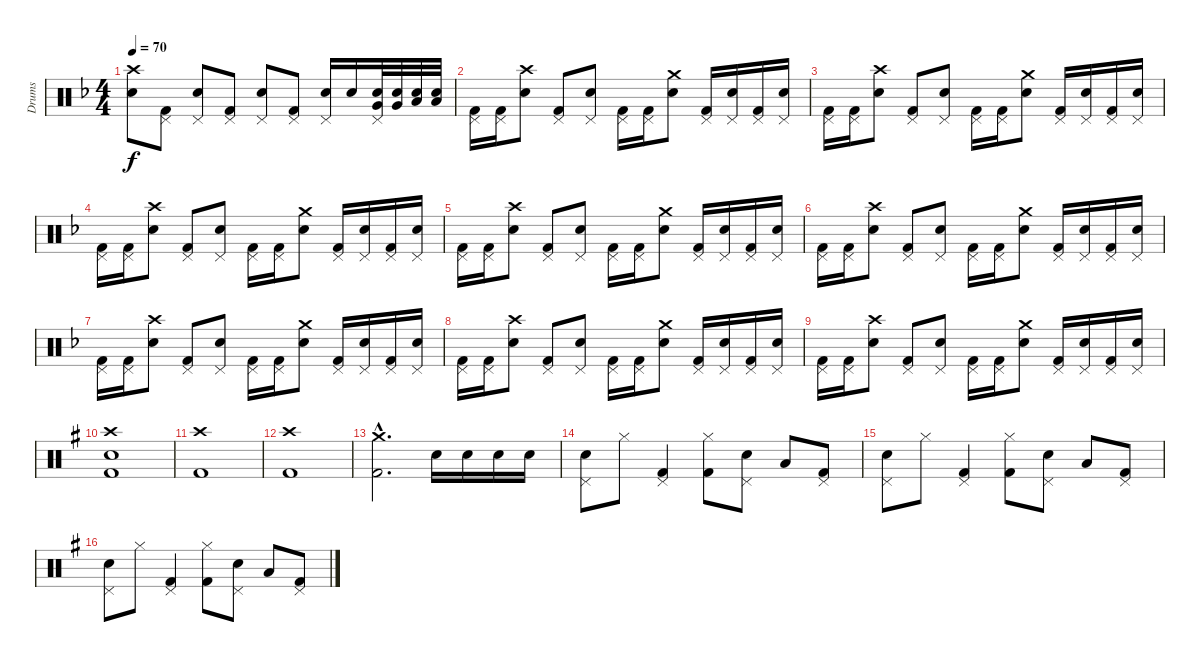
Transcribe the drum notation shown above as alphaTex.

\track ("Drums" "Drums") {instrument percussion}
\staff {score}
\articulation defaults
\ts (4 4)
\tempo 70
\clef neutral
\ks dminor
("Crash high (hit)" "Snare (hit) 2").8{dy f} ("Pedal Hi-Hat (hit)" "Kick (hit) 2").8 ("Pedal Hi-Hat (hit)" "Snare (hit) 2").8 ("Pedal Hi-Hat (hit)" "Kick (hit) 2").8 ("Pedal Hi-Hat (hit)" "Snare (hit) 2").8 ("Pedal Hi-Hat (hit)" "Kick (hit) 2").8 ("Pedal Hi-Hat (hit)" "Snare (hit) 2").16 "Snare (hit) 2".16 ("Pedal Hi-Hat (hit)" "Snare (hit) 2" "Very Low Tom (hit)").32 ("Snare (hit) 2" "Very Low Tom (hit)").32 ("Snare (hit) 2" "Low Floor Tom (hit)").32 ("Snare (hit) 2" "Low Floor Tom (hit)").32 |
("Pedal Hi-Hat (hit)" "Kick (hit) 2").16 ("Pedal Hi-Hat (hit)" "Kick (hit) 2").16 ("Crash high (hit)" "Snare (hit) 2").8 ("Pedal Hi-Hat (hit)" "Kick (hit) 2").8 ("Pedal Hi-Hat (hit)" "Snare (hit) 2").8 ("Pedal Hi-Hat (hit)" "Kick (hit) 2").16 ("Pedal Hi-Hat (hit)" "Kick (hit) 2").16 ("Crash medium (hit)" "Snare (hit) 2").8 ("Pedal Hi-Hat (hit)" "Kick (hit) 2").16 ("Pedal Hi-Hat (hit)" "Snare (hit) 2").16 ("Pedal Hi-Hat (hit)" "Kick (hit) 2").16 ("Pedal Hi-Hat (hit)" "Snare (hit) 2").16 |
("Pedal Hi-Hat (hit)" "Kick (hit) 2").16 ("Pedal Hi-Hat (hit)" "Kick (hit) 2").16 ("Crash high (hit)" "Snare (hit) 2").8 ("Pedal Hi-Hat (hit)" "Kick (hit) 2").8 ("Pedal Hi-Hat (hit)" "Snare (hit) 2").8 ("Pedal Hi-Hat (hit)" "Kick (hit) 2").16 ("Pedal Hi-Hat (hit)" "Kick (hit) 2").16 ("Crash medium (hit)" "Snare (hit) 2").8 ("Pedal Hi-Hat (hit)" "Kick (hit) 2").16 ("Pedal Hi-Hat (hit)" "Snare (hit) 2").16 ("Pedal Hi-Hat (hit)" "Kick (hit) 2").16 ("Pedal Hi-Hat (hit)" "Snare (hit) 2").16 |
("Pedal Hi-Hat (hit)" "Kick (hit) 2").16 ("Pedal Hi-Hat (hit)" "Kick (hit) 2").16 ("Crash high (hit)" "Snare (hit) 2").8 ("Pedal Hi-Hat (hit)" "Kick (hit) 2").8 ("Pedal Hi-Hat (hit)" "Snare (hit) 2").8 ("Pedal Hi-Hat (hit)" "Kick (hit) 2").16 ("Pedal Hi-Hat (hit)" "Kick (hit) 2").16 ("Crash medium (hit)" "Snare (hit) 2").8 ("Pedal Hi-Hat (hit)" "Kick (hit) 2").16 ("Pedal Hi-Hat (hit)" "Snare (hit) 2").16 ("Pedal Hi-Hat (hit)" "Kick (hit) 2").16 ("Pedal Hi-Hat (hit)" "Snare (hit) 2").16 |
("Pedal Hi-Hat (hit)" "Kick (hit) 2").16 ("Pedal Hi-Hat (hit)" "Kick (hit) 2").16 ("Crash high (hit)" "Snare (hit) 2").8 ("Pedal Hi-Hat (hit)" "Kick (hit) 2").8 ("Pedal Hi-Hat (hit)" "Snare (hit) 2").8 ("Pedal Hi-Hat (hit)" "Kick (hit) 2").16 ("Pedal Hi-Hat (hit)" "Kick (hit) 2").16 ("Crash medium (hit)" "Snare (hit) 2").8 ("Pedal Hi-Hat (hit)" "Kick (hit) 2").16 ("Pedal Hi-Hat (hit)" "Snare (hit) 2").16 ("Pedal Hi-Hat (hit)" "Kick (hit) 2").16 ("Pedal Hi-Hat (hit)" "Snare (hit) 2").16 |
("Pedal Hi-Hat (hit)" "Kick (hit) 2").16 ("Pedal Hi-Hat (hit)" "Kick (hit) 2").16 ("Crash high (hit)" "Snare (hit) 2").8 ("Pedal Hi-Hat (hit)" "Kick (hit) 2").8 ("Pedal Hi-Hat (hit)" "Snare (hit) 2").8 ("Pedal Hi-Hat (hit)" "Kick (hit) 2").16 ("Pedal Hi-Hat (hit)" "Kick (hit) 2").16 ("Crash medium (hit)" "Snare (hit) 2").8 ("Pedal Hi-Hat (hit)" "Kick (hit) 2").16 ("Pedal Hi-Hat (hit)" "Snare (hit) 2").16 ("Pedal Hi-Hat (hit)" "Kick (hit) 2").16 ("Pedal Hi-Hat (hit)" "Snare (hit) 2").16 |
("Pedal Hi-Hat (hit)" "Kick (hit) 2").16 ("Pedal Hi-Hat (hit)" "Kick (hit) 2").16 ("Crash high (hit)" "Snare (hit) 2").8 ("Pedal Hi-Hat (hit)" "Kick (hit) 2").8 ("Pedal Hi-Hat (hit)" "Snare (hit) 2").8 ("Pedal Hi-Hat (hit)" "Kick (hit) 2").16 ("Pedal Hi-Hat (hit)" "Kick (hit) 2").16 ("Crash medium (hit)" "Snare (hit) 2").8 ("Pedal Hi-Hat (hit)" "Kick (hit) 2").16 ("Pedal Hi-Hat (hit)" "Snare (hit) 2").16 ("Pedal Hi-Hat (hit)" "Kick (hit) 2").16 ("Pedal Hi-Hat (hit)" "Snare (hit) 2").16 |
("Pedal Hi-Hat (hit)" "Kick (hit) 2").16 ("Pedal Hi-Hat (hit)" "Kick (hit) 2").16 ("Crash high (hit)" "Snare (hit) 2").8 ("Pedal Hi-Hat (hit)" "Kick (hit) 2").8 ("Pedal Hi-Hat (hit)" "Snare (hit) 2").8 ("Pedal Hi-Hat (hit)" "Kick (hit) 2").16 ("Pedal Hi-Hat (hit)" "Kick (hit) 2").16 ("Crash medium (hit)" "Snare (hit) 2").8 ("Pedal Hi-Hat (hit)" "Kick (hit) 2").16 ("Pedal Hi-Hat (hit)" "Snare (hit) 2").16 ("Pedal Hi-Hat (hit)" "Kick (hit) 2").16 ("Pedal Hi-Hat (hit)" "Snare (hit) 2").16 |
("Pedal Hi-Hat (hit)" "Kick (hit) 2").16 ("Pedal Hi-Hat (hit)" "Kick (hit) 2").16 ("Crash high (hit)" "Snare (hit) 2").8 ("Pedal Hi-Hat (hit)" "Kick (hit) 2").8 ("Pedal Hi-Hat (hit)" "Snare (hit) 2").8 ("Pedal Hi-Hat (hit)" "Kick (hit) 2").16 ("Pedal Hi-Hat (hit)" "Kick (hit) 2").16 ("Crash medium (hit)" "Snare (hit) 2").8 ("Pedal Hi-Hat (hit)" "Kick (hit) 2").16 ("Pedal Hi-Hat (hit)" "Snare (hit) 2").16 ("Pedal Hi-Hat (hit)" "Kick (hit) 2").16 ("Pedal Hi-Hat (hit)" "Snare (hit) 2").16 |
\ks eminor
("Crash high (hit)" "Snare (hit) 2" "Kick (hit) 2").1 |
("Crash high (hit)" "Kick (hit) 2").1 |
("Crash high (hit)" "Kick (hit) 2").1 |
("Crash medium (hit)"{hac} "Kick (hit) 2"{hac}).2{d} "Snare (hit) 2".16 "Snare (hit) 2".16 "Snare (hit) 2".16 "Snare (hit) 2".16 |
("Pedal Hi-Hat (hit)" "Snare (hit) 2").8 "Hi-Hat (closed)".8 ("Pedal Hi-Hat (hit)" "Kick (hit) 2").4 ("Hi-Hat (closed)" "Kick (hit) 2").8 ("Pedal Hi-Hat (hit)" "Snare (hit) 2").8 "Low Floor Tom (hit)".8 ("Pedal Hi-Hat (hit)" "Kick (hit) 2").8 |
("Pedal Hi-Hat (hit)" "Snare (hit) 2").8 "Hi-Hat (closed)".8 ("Pedal Hi-Hat (hit)" "Kick (hit) 2").4 ("Hi-Hat (closed)" "Kick (hit) 2").8 ("Pedal Hi-Hat (hit)" "Snare (hit) 2").8 "Low Floor Tom (hit)".8 ("Pedal Hi-Hat (hit)" "Kick (hit) 2").8 |
("Pedal Hi-Hat (hit)" "Snare (hit) 2").8 "Hi-Hat (closed)".8 ("Pedal Hi-Hat (hit)" "Kick (hit) 2").4 ("Hi-Hat (closed)" "Kick (hit) 2").8 ("Pedal Hi-Hat (hit)" "Snare (hit) 2").8 "Low Floor Tom (hit)".8 ("Pedal Hi-Hat (hit)" "Kick (hit) 2").8
